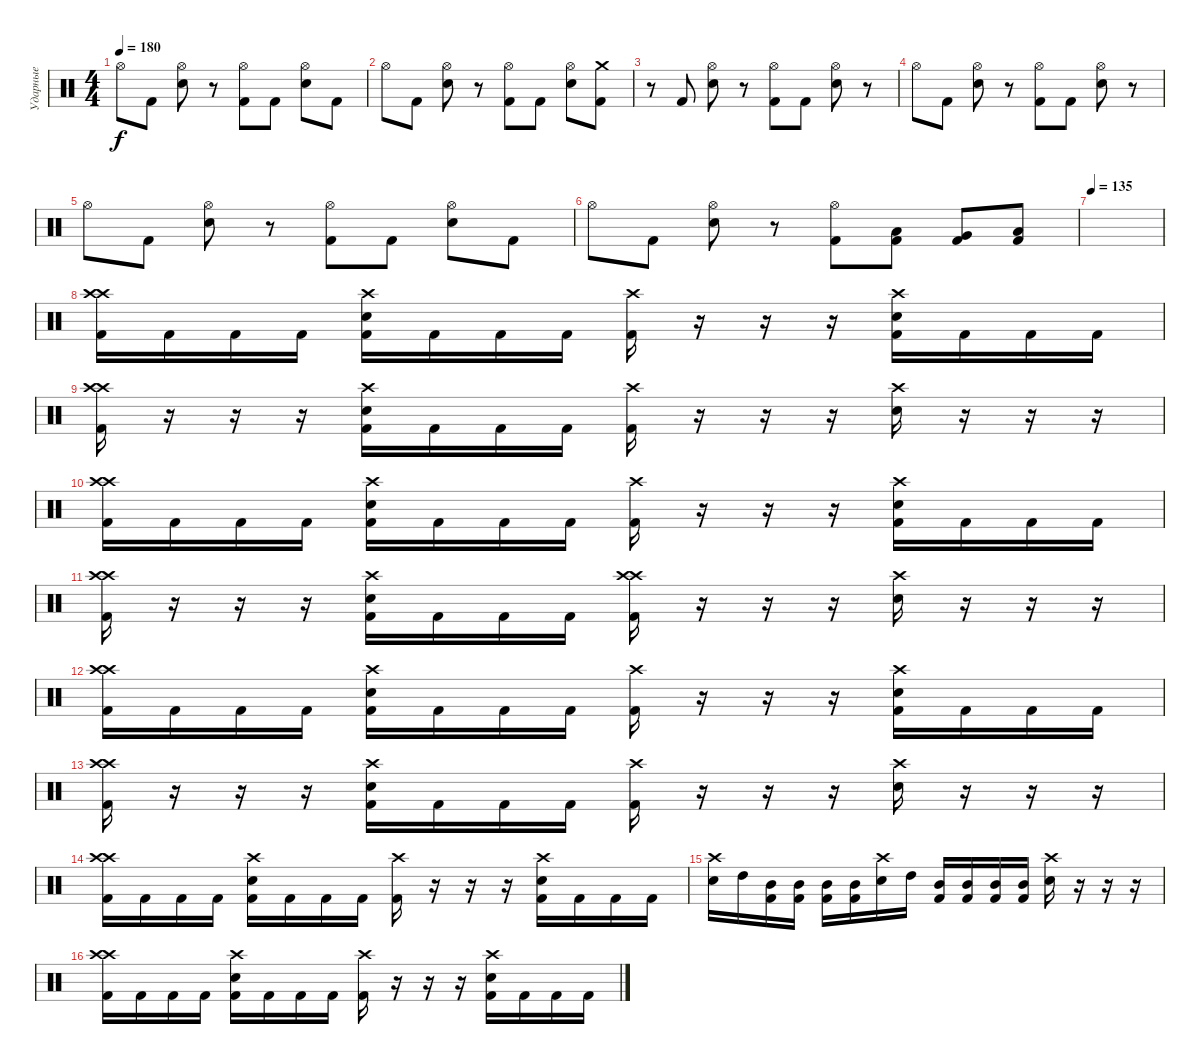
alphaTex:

\track ("Ударные" "Ударные") {instrument percussion}
\staff {score}
\articulation defaults
\ts (4 4)
\tempo 180
\clef neutral
\ks c "Hi-Hat (open)".8{dy f} "Kick (hit) 2".8
("Hi-Hat (open)" "Electric Snare (hit)").8 r.8 ("Hi-Hat (open)" "Kick (hit) 2").8 "Kick (hit) 2".8 ("Hi-Hat (open)" "Electric Snare (hit)").8 "Kick (hit) 2".8 |
"Hi-Hat (open)".8 "Kick (hit) 2".8 ("Hi-Hat (open)" "Electric Snare (hit)").8 r.8 ("Hi-Hat (open)" "Kick (hit) 2").8 "Kick (hit) 2".8 ("Hi-Hat (open)" "Electric Snare (hit)").8 ("Crash medium (hit)" "Kick (hit) 2").8 |
r.8 "Kick (hit) 2".8 ("Hi-Hat (open)" "Electric Snare (hit)").8 r.8 ("Hi-Hat (open)" "Kick (hit) 2").8 "Kick (hit) 2".8 ("Hi-Hat (open)" "Electric Snare (hit)").8 r.8 |
"Hi-Hat (open)".8 "Kick (hit) 2".8 ("Hi-Hat (open)" "Electric Snare (hit)").8 r.8 ("Hi-Hat (open)" "Kick (hit) 2").8 "Kick (hit) 2".8 ("Hi-Hat (open)" "Electric Snare (hit)").8 r.8 |
"Hi-Hat (open)".8 "Kick (hit) 2".8 ("Hi-Hat (open)" "Electric Snare (hit)").8 r.8 ("Hi-Hat (open)" "Kick (hit) 2").8 "Kick (hit) 2".8 ("Hi-Hat (open)" "Electric Snare (hit)").8 "Kick (hit) 2".8 |
"Hi-Hat (open)".8 "Kick (hit) 2".8 ("Hi-Hat (open)" "Electric Snare (hit)").8 r.8 ("Hi-Hat (open)" "Kick (hit) 2").8 ("Low Tom (hit)" "Kick (hit) 2").8 ("Very Low Tom (hit)" "Kick (hit) 2").8 ("Low Floor Tom (hit)" "Kick (hit) 2").8 |
\tempo 135
|
("Crash high (hit)" "Crash high (hit)" "Kick (hit) 2").16 "Kick (hit) 2".16 "Kick (hit) 2".16 "Kick (hit) 2".16 ("Crash high (hit)" "Electric Snare (hit)" "Kick (hit) 2").16 "Kick (hit) 2".16 "Kick (hit) 2".16 "Kick (hit) 2".16 ("Crash high (hit)" "Kick (hit) 2").16 r.16 r.16 r.16 ("Crash high (hit)" "Electric Snare (hit)" "Kick (hit) 2").16 "Kick (hit) 2".16 "Kick (hit) 2".16 "Kick (hit) 2".16 |
("Crash high (hit)" "Crash high (hit)" "Kick (hit) 2").16 r.16 r.16 r.16 ("Crash high (hit)" "Electric Snare (hit)" "Kick (hit) 2").16 "Kick (hit) 2".16 "Kick (hit) 2".16 "Kick (hit) 2".16 ("Crash high (hit)" "Kick (hit) 2").16 r.16 r.16 r.16 ("Crash high (hit)" "Electric Snare (hit)").16 r.16 r.16 r.16 |
("Crash high (hit)" "Crash high (hit)" "Kick (hit) 2").16 "Kick (hit) 2".16 "Kick (hit) 2".16 "Kick (hit) 2".16 ("Crash high (hit)" "Electric Snare (hit)" "Kick (hit) 2").16 "Kick (hit) 2".16 "Kick (hit) 2".16 "Kick (hit) 2".16 ("Crash high (hit)" "Kick (hit) 2").16 r.16 r.16 r.16 ("Crash high (hit)" "Electric Snare (hit)" "Kick (hit) 2").16 "Kick (hit) 2".16 "Kick (hit) 2".16 "Kick (hit) 2".16 |
("Crash high (hit)" "Crash high (hit)" "Kick (hit) 2").16 r.16 r.16 r.16 ("Crash high (hit)" "Electric Snare (hit)" "Kick (hit) 2").16 "Kick (hit) 2".16 "Kick (hit) 2".16 "Kick (hit) 2".16 ("Crash high (hit)" "Crash high (hit)" "Kick (hit) 2").16 r.16 r.16 r.16 ("Crash high (hit)" "Electric Snare (hit)").16 r.16 r.16 r.16 |
("Crash high (hit)" "Crash high (hit)" "Kick (hit) 2").16 "Kick (hit) 2".16 "Kick (hit) 2".16 "Kick (hit) 2".16 ("Crash high (hit)" "Electric Snare (hit)" "Kick (hit) 2").16 "Kick (hit) 2".16 "Kick (hit) 2".16 "Kick (hit) 2".16 ("Crash high (hit)" "Kick (hit) 2").16 r.16 r.16 r.16 ("Crash high (hit)" "Electric Snare (hit)" "Kick (hit) 2").16 "Kick (hit) 2".16 "Kick (hit) 2".16 "Kick (hit) 2".16 |
("Crash high (hit)" "Crash high (hit)" "Kick (hit) 2").16 r.16 r.16 r.16 ("Crash high (hit)" "Electric Snare (hit)" "Kick (hit) 2").16 "Kick (hit) 2".16 "Kick (hit) 2".16 "Kick (hit) 2".16 ("Crash high (hit)" "Kick (hit) 2").16 r.16 r.16 r.16 ("Crash high (hit)" "Electric Snare (hit)").16 r.16 r.16 r.16 |
("Crash high (hit)" "Crash high (hit)" "Kick (hit) 2").16 "Kick (hit) 2".16 "Kick (hit) 2".16 "Kick (hit) 2".16 ("Crash high (hit)" "Electric Snare (hit)" "Kick (hit) 2").16 "Kick (hit) 2".16 "Kick (hit) 2".16 "Kick (hit) 2".16 ("Crash high (hit)" "Kick (hit) 2").16 r.16 r.16 r.16 ("Crash high (hit)" "Electric Snare (hit)" "Kick (hit) 2").16 "Kick (hit) 2".16 "Kick (hit) 2".16 "Kick (hit) 2".16 |
("Crash high (hit)" "Electric Snare (hit)").16 "High Tom (hit)".16 ("Mid Tom (hit)" "Kick (hit) 2").16 ("Mid Tom (hit)" "Kick (hit) 2").16 ("Mid Tom (hit)" "Kick (hit) 2").16 ("Mid Tom (hit)" "Kick (hit) 2").16 ("Crash high (hit)" "Electric Snare (hit)").16 "High Tom (hit)".16 ("Mid Tom (hit)" "Kick (hit) 2").16 ("Mid Tom (hit)" "Kick (hit) 2").16 ("Mid Tom (hit)" "Kick (hit) 2").16 ("Mid Tom (hit)" "Kick (hit) 2").16 ("Crash high (hit)" "Electric Snare (hit)").16 r.16 r.16 r.16 |
("Crash high (hit)" "Crash high (hit)" "Kick (hit) 2").16 "Kick (hit) 2".16 "Kick (hit) 2".16 "Kick (hit) 2".16 ("Crash high (hit)" "Electric Snare (hit)" "Kick (hit) 2").16 "Kick (hit) 2".16 "Kick (hit) 2".16 "Kick (hit) 2".16 ("Crash high (hit)" "Kick (hit) 2").16 r.16 r.16 r.16 ("Crash high (hit)" "Electric Snare (hit)" "Kick (hit) 2").16 "Kick (hit) 2".16 "Kick (hit) 2".16 "Kick (hit) 2".16
